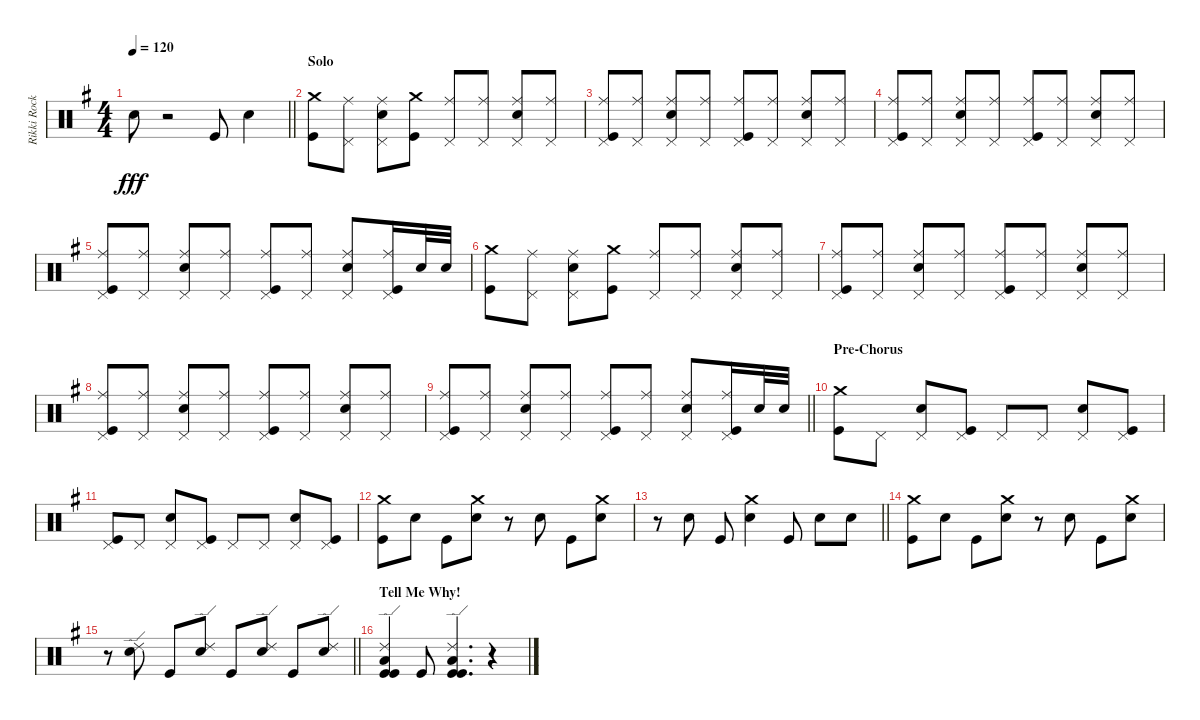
\track ("Rikki Rocket: Drums" "Rikki Rock") {instrument percussion}
\staff {score}
\articulation defaults
\ts (4 4)
\tempo 120
\clef neutral
\barLineRight lightlight
\ks g "Electric Snare (hit)".8{dy fff}
r.2 "Kick (hit)".8 "Electric Snare (hit)".4 |
\section ("" "Solo")
("Crash medium (hit)" "Kick (hit)").8 ("Ride (middle)" "Pedal Hi-Hat (hit)").8 ("Ride (middle)" "Pedal Hi-Hat (hit)" "Electric Snare (hit)").8 ("Crash medium (hit)" "Kick (hit)").8 ("Ride (middle)" "Pedal Hi-Hat (hit)").8 ("Ride (middle)" "Pedal Hi-Hat (hit)").8 ("Ride (middle)" "Pedal Hi-Hat (hit)" "Electric Snare (hit)").8 ("Ride (middle)" "Pedal Hi-Hat (hit)").8 |
("Ride (middle)" "Pedal Hi-Hat (hit)" "Kick (hit)").8 ("Ride (middle)" "Pedal Hi-Hat (hit)").8 ("Ride (middle)" "Pedal Hi-Hat (hit)" "Electric Snare (hit)").8 ("Ride (middle)" "Pedal Hi-Hat (hit)").8 ("Ride (middle)" "Pedal Hi-Hat (hit)" "Kick (hit)").8 ("Ride (middle)" "Pedal Hi-Hat (hit)").8 ("Ride (middle)" "Pedal Hi-Hat (hit)" "Electric Snare (hit)").8 ("Ride (middle)" "Pedal Hi-Hat (hit)").8 |
("Ride (middle)" "Pedal Hi-Hat (hit)" "Kick (hit)").8 ("Ride (middle)" "Pedal Hi-Hat (hit)").8 ("Ride (middle)" "Pedal Hi-Hat (hit)" "Electric Snare (hit)").8 ("Ride (middle)" "Pedal Hi-Hat (hit)").8 ("Ride (middle)" "Pedal Hi-Hat (hit)" "Kick (hit)").8 ("Ride (middle)" "Pedal Hi-Hat (hit)").8 ("Ride (middle)" "Pedal Hi-Hat (hit)" "Electric Snare (hit)").8 ("Ride (middle)" "Pedal Hi-Hat (hit)").8 |
("Ride (middle)" "Pedal Hi-Hat (hit)" "Kick (hit)").8 ("Ride (middle)" "Pedal Hi-Hat (hit)").8 ("Ride (middle)" "Pedal Hi-Hat (hit)" "Electric Snare (hit)").8 ("Ride (middle)" "Pedal Hi-Hat (hit)").8 ("Ride (middle)" "Pedal Hi-Hat (hit)" "Kick (hit)").8 ("Ride (middle)" "Pedal Hi-Hat (hit)").8 ("Ride (middle)" "Pedal Hi-Hat (hit)" "Electric Snare (hit)").8 ("Ride (middle)" "Pedal Hi-Hat (hit)" "Kick (hit)").16 "Electric Snare (hit)".32 "Electric Snare (hit)".32 |
("Crash medium (hit)" "Kick (hit)").8 ("Ride (middle)" "Pedal Hi-Hat (hit)").8 ("Ride (middle)" "Pedal Hi-Hat (hit)" "Electric Snare (hit)").8 ("Crash medium (hit)" "Kick (hit)").8 ("Ride (middle)" "Pedal Hi-Hat (hit)").8 ("Ride (middle)" "Pedal Hi-Hat (hit)").8 ("Ride (middle)" "Pedal Hi-Hat (hit)" "Electric Snare (hit)").8 ("Ride (middle)" "Pedal Hi-Hat (hit)").8 |
("Ride (middle)" "Pedal Hi-Hat (hit)" "Kick (hit)").8 ("Ride (middle)" "Pedal Hi-Hat (hit)").8 ("Ride (middle)" "Pedal Hi-Hat (hit)" "Electric Snare (hit)").8 ("Ride (middle)" "Pedal Hi-Hat (hit)").8 ("Ride (middle)" "Pedal Hi-Hat (hit)" "Kick (hit)").8 ("Ride (middle)" "Pedal Hi-Hat (hit)").8 ("Ride (middle)" "Pedal Hi-Hat (hit)" "Electric Snare (hit)").8 ("Ride (middle)" "Pedal Hi-Hat (hit)").8 |
("Ride (middle)" "Pedal Hi-Hat (hit)" "Kick (hit)").8 ("Ride (middle)" "Pedal Hi-Hat (hit)").8 ("Ride (middle)" "Pedal Hi-Hat (hit)" "Electric Snare (hit)").8 ("Ride (middle)" "Pedal Hi-Hat (hit)").8 ("Ride (middle)" "Pedal Hi-Hat (hit)" "Kick (hit)").8 ("Ride (middle)" "Pedal Hi-Hat (hit)").8 ("Ride (middle)" "Pedal Hi-Hat (hit)" "Electric Snare (hit)").8 ("Ride (middle)" "Pedal Hi-Hat (hit)").8 |
\barLineRight lightlight
("Ride (middle)" "Pedal Hi-Hat (hit)" "Kick (hit)").8 ("Ride (middle)" "Pedal Hi-Hat (hit)").8 ("Ride (middle)" "Pedal Hi-Hat (hit)" "Electric Snare (hit)").8 ("Ride (middle)" "Pedal Hi-Hat (hit)").8 ("Ride (middle)" "Pedal Hi-Hat (hit)" "Kick (hit)").8 ("Ride (middle)" "Pedal Hi-Hat (hit)").8 ("Ride (middle)" "Pedal Hi-Hat (hit)" "Electric Snare (hit)").8 ("Ride (middle)" "Pedal Hi-Hat (hit)" "Kick (hit)").16 "Electric Snare (hit)".32 "Electric Snare (hit)".32 |
\section ("" "Pre-Chorus")
("Crash medium (hit)" "Kick (hit)").8 "Pedal Hi-Hat (hit)".8 ("Pedal Hi-Hat (hit)" "Electric Snare (hit)").8 ("Pedal Hi-Hat (hit)" "Kick (hit)").8 "Pedal Hi-Hat (hit)".8 "Pedal Hi-Hat (hit)".8 ("Pedal Hi-Hat (hit)" "Electric Snare (hit)").8 ("Pedal Hi-Hat (hit)" "Kick (hit)").8 |
("Pedal Hi-Hat (hit)" "Kick (hit)").8 "Pedal Hi-Hat (hit)".8 ("Pedal Hi-Hat (hit)" "Electric Snare (hit)").8 ("Pedal Hi-Hat (hit)" "Kick (hit)").8 "Pedal Hi-Hat (hit)".8 "Pedal Hi-Hat (hit)".8 ("Pedal Hi-Hat (hit)" "Electric Snare (hit)").8 ("Pedal Hi-Hat (hit)" "Kick (hit)").8 |
("Crash medium (hit)" "Kick (hit)").8 "Electric Snare (hit)".8 "Kick (hit)".8 ("Crash medium (hit)" "Electric Snare (hit)").8 r.8 "Electric Snare (hit)".8 "Kick (hit)".8 ("Crash medium (hit)" "Electric Snare (hit)").8 |
\barLineRight lightlight
r.8 "Electric Snare (hit)".8 "Kick (hit)".8 ("Crash medium (hit)" "Electric Snare (hit)").4 "Kick (hit)".8 "Electric Snare (hit)".8 "Electric Snare (hit)".8 |
("Crash medium (hit)" "Kick (hit)").8 "Electric Snare (hit)".8 "Kick (hit)".8 ("Crash medium (hit)" "Electric Snare (hit)").8 r.8 "Electric Snare (hit)".8 "Kick (hit)".8 ("Crash medium (hit)" "Electric Snare (hit)").8 |
\barLineRight lightlight
r.8 ("Ride (edge) 2" "Electric Snare (hit)").8 "Kick (hit)".8 ("Ride (edge) 2" "Electric Snare (hit)").8 "Kick (hit)".8 ("Ride (edge) 2" "Electric Snare (hit)").8 "Kick (hit)".8 ("Ride (edge) 2" "Electric Snare (hit)").8 |
\section ("" "Tell Me Why!")
("Ride (edge) 2" "Kick (hit)" "Kick (hit)" "Low Floor Tom (hit)").4 "Kick (hit)".8 ("Ride (edge) 2" "Kick (hit)" "Kick (hit)" "Low Floor Tom (hit)").4{d} r.4
